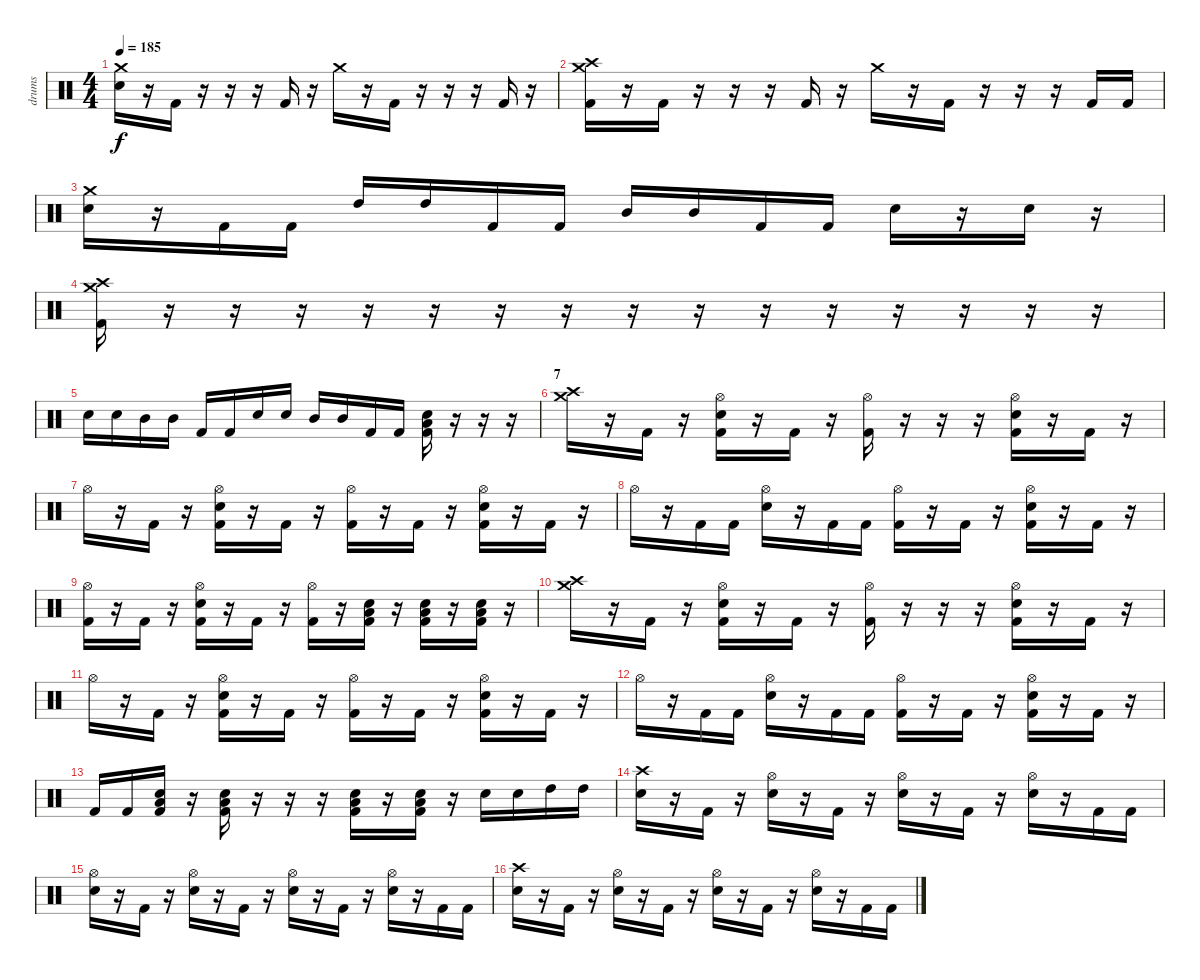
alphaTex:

\track ("drums" "drums") {instrument percussion}
\staff {score}
\articulation defaults
\ts (4 4)
\tempo 185
\clef neutral
\ks c
("Crash medium (hit)" "Electric Snare (hit)").16{dy f} r.16 "Kick (hit) 2".16 r.16 r.16 r.16 "Kick (hit) 2".16 r.16 "Crash medium (hit)".16 r.16 "Kick (hit) 2".16 r.16 r.16 r.16 "Kick (hit) 2".16 r.16 |
("Crash medium (hit)" "Crash high (hit)" "Kick (hit) 2").16 r.16 "Kick (hit) 2".16 r.16 r.16 r.16 "Kick (hit) 2".16 r.16 "Crash medium (hit)".16 r.16 "Kick (hit) 2".16 r.16 r.16 r.16 "Kick (hit) 2".16 "Kick (hit) 2".16 |
("Crash medium (hit)" "Electric Snare (hit)").16 r.16 "Kick (hit) 2".16 "Kick (hit) 2".16 "High Tom (hit)".16 "High Tom (hit)".16 "Kick (hit) 2".16 "Kick (hit) 2".16 "Mid Tom (hit)".16 "Mid Tom (hit)".16 "Kick (hit) 2".16 "Kick (hit) 2".16 "Electric Snare (hit)".16 r.16 "Electric Snare (hit)".16 r.16 |
("Crash medium (hit)" "Crash high (hit)" "Kick (hit) 2").16 r.16 r.16 r.16 r.16 r.16 r.16 r.16 r.16 r.16 r.16 r.16 r.16 r.16 r.16 r.16 |
"Electric Snare (hit)".16 "Electric Snare (hit)".16 "Mid Tom (hit)".16 "Mid Tom (hit)".16 "Kick (hit) 2".16 "Kick (hit) 2".16 "Electric Snare (hit)".16 "Electric Snare (hit)".16 "Mid Tom (hit)".16 "Mid Tom (hit)".16 "Kick (hit) 2".16 "Kick (hit) 2".16 ("Electric Snare (hit)" "Low Floor Tom (hit)" "Kick (hit) 2").16 r.16 r.16 r.16 |
\section ("" "7")
("Crash medium (hit)" "Crash high (hit)").16 r.16 "Kick (hit) 2".16 r.16 ("Hi-Hat (open)" "Electric Snare (hit)" "Kick (hit) 2").16 r.16 "Kick (hit) 2".16 r.16 ("Hi-Hat (open)" "Kick (hit) 2").16 r.16 r.16 r.16 ("Hi-Hat (open)" "Electric Snare (hit)" "Kick (hit) 2").16 r.16 "Kick (hit) 2".16 r.16 |
"Hi-Hat (open)".16 r.16 "Kick (hit) 2".16 r.16 ("Hi-Hat (open)" "Electric Snare (hit)" "Kick (hit) 2").16 r.16 "Kick (hit) 2".16 r.16 ("Hi-Hat (open)" "Kick (hit) 2").16 r.16 "Kick (hit) 2".16 r.16 ("Hi-Hat (open)" "Electric Snare (hit)" "Kick (hit) 2").16 r.16 "Kick (hit) 2".16 r.16 |
"Hi-Hat (open)".16 r.16 "Kick (hit) 2".16 "Kick (hit) 2".16 ("Hi-Hat (open)" "Electric Snare (hit)").16 r.16 "Kick (hit) 2".16 "Kick (hit) 2".16 ("Hi-Hat (open)" "Kick (hit) 2").16 r.16 "Kick (hit) 2".16 r.16 ("Hi-Hat (open)" "Electric Snare (hit)" "Kick (hit) 2").16 r.16 "Kick (hit) 2".16 r.16 |
("Hi-Hat (open)" "Kick (hit) 2").16 r.16 "Kick (hit) 2".16 r.16 ("Hi-Hat (open)" "Electric Snare (hit)" "Kick (hit) 2").16 r.16 "Kick (hit) 2".16 r.16 ("Hi-Hat (open)" "Kick (hit) 2").16 r.16 ("Low Floor Tom (hit)" "Electric Snare (hit)" "Kick (hit) 2").16 r.16 ("Low Floor Tom (hit)" "Electric Snare (hit)" "Kick (hit) 2").16 r.16 ("Low Floor Tom (hit)" "Electric Snare (hit)" "Kick (hit) 2").16 r.16 |
("Crash medium (hit)" "Crash high (hit)").16 r.16 "Kick (hit) 2".16 r.16 ("Hi-Hat (open)" "Electric Snare (hit)" "Kick (hit) 2").16 r.16 "Kick (hit) 2".16 r.16 ("Hi-Hat (open)" "Kick (hit) 2").16 r.16 r.16 r.16 ("Hi-Hat (open)" "Electric Snare (hit)" "Kick (hit) 2").16 r.16 "Kick (hit) 2".16 r.16 |
"Hi-Hat (open)".16 r.16 "Kick (hit) 2".16 r.16 ("Hi-Hat (open)" "Electric Snare (hit)" "Kick (hit) 2").16 r.16 "Kick (hit) 2".16 r.16 ("Hi-Hat (open)" "Kick (hit) 2").16 r.16 "Kick (hit) 2".16 r.16 ("Hi-Hat (open)" "Electric Snare (hit)" "Kick (hit) 2").16 r.16 "Kick (hit) 2".16 r.16 |
"Hi-Hat (open)".16 r.16 "Kick (hit) 2".16 "Kick (hit) 2".16 ("Hi-Hat (open)" "Electric Snare (hit)").16 r.16 "Kick (hit) 2".16 "Kick (hit) 2".16 ("Hi-Hat (open)" "Kick (hit) 2").16 r.16 "Kick (hit) 2".16 r.16 ("Hi-Hat (open)" "Electric Snare (hit)" "Kick (hit) 2").16 r.16 "Kick (hit) 2".16 r.16 |
"Kick (hit) 2".16 "Kick (hit) 2".16 ("Low Floor Tom (hit)" "Electric Snare (hit)" "Kick (hit) 2").16 r.16 ("Low Floor Tom (hit)" "Electric Snare (hit)" "Kick (hit) 2").16 r.16 r.16 r.16 ("Low Floor Tom (hit)" "Electric Snare (hit)" "Kick (hit) 2").16 r.16 ("Low Floor Tom (hit)" "Electric Snare (hit)" "Kick (hit) 2").16 r.16 "Electric Snare (hit)".16 "Electric Snare (hit)".16 "High Tom (hit)".16 "High Tom (hit)".16 |
("Crash high (hit)" "Electric Snare (hit)").16 r.16 "Kick (hit) 2".16 r.16 ("Hi-Hat (open)" "Electric Snare (hit)").16 r.16 "Kick (hit) 2".16 r.16 ("Hi-Hat (open)" "Electric Snare (hit)").16 r.16 "Kick (hit) 2".16 r.16 ("Hi-Hat (open)" "Electric Snare (hit)").16 r.16 "Kick (hit) 2".16 "Kick (hit) 2".16 |
("Hi-Hat (open)" "Electric Snare (hit)").16 r.16 "Kick (hit) 2".16 r.16 ("Hi-Hat (open)" "Electric Snare (hit)").16 r.16 "Kick (hit) 2".16 r.16 ("Hi-Hat (open)" "Electric Snare (hit)").16 r.16 "Kick (hit) 2".16 r.16 ("Hi-Hat (open)" "Electric Snare (hit)").16 r.16 "Kick (hit) 2".16 "Kick (hit) 2".16 |
("Crash high (hit)" "Electric Snare (hit)").16 r.16 "Kick (hit) 2".16 r.16 ("Hi-Hat (open)" "Electric Snare (hit)").16 r.16 "Kick (hit) 2".16 r.16 ("Hi-Hat (open)" "Electric Snare (hit)").16 r.16 "Kick (hit) 2".16 r.16 ("Hi-Hat (open)" "Electric Snare (hit)").16 r.16 "Kick (hit) 2".16 "Kick (hit) 2".16
